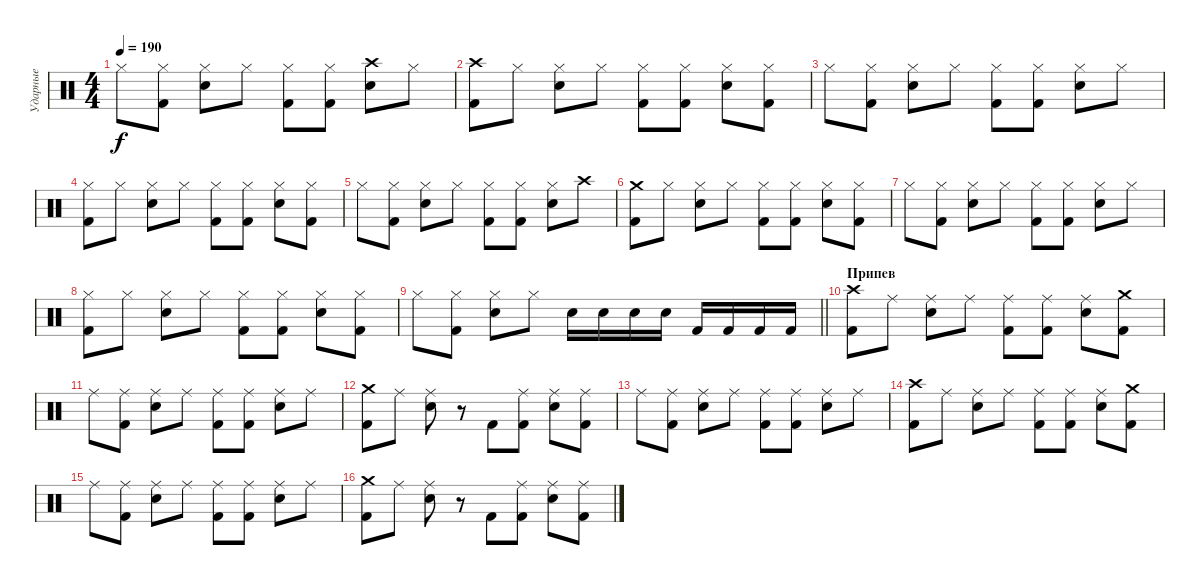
\track ("Ударные" "Ударные") {instrument percussion}
\staff {score}
\articulation defaults
\ts (4 4)
\tempo 190
\clef neutral
\ks c "Hi-Hat (closed)".8{dy f}
("Hi-Hat (closed)" "Kick (hit) 2").8 ("Hi-Hat (closed)" "Electric Snare (hit)").8 "Hi-Hat (closed)".8 ("Hi-Hat (closed)" "Kick (hit) 2").8 ("Hi-Hat (closed)" "Kick (hit) 2").8 ("Crash high (hit)" "Electric Snare (hit)").8 "Hi-Hat (closed)".8 |
("Crash high (hit)" "Kick (hit) 2").8 "Hi-Hat (closed)".8 ("Hi-Hat (closed)" "Electric Snare (hit)").8 "Hi-Hat (closed)".8 ("Hi-Hat (closed)" "Kick (hit) 2").8 ("Hi-Hat (closed)" "Kick (hit) 2").8 ("Hi-Hat (closed)" "Electric Snare (hit)").8 ("Hi-Hat (closed)" "Kick (hit) 2").8 |
"Hi-Hat (closed)".8 ("Hi-Hat (closed)" "Kick (hit) 2").8 ("Hi-Hat (closed)" "Electric Snare (hit)").8 "Hi-Hat (closed)".8 ("Hi-Hat (closed)" "Kick (hit) 2").8 ("Hi-Hat (closed)" "Kick (hit) 2").8 ("Hi-Hat (closed)" "Electric Snare (hit)").8 "Hi-Hat (closed)".8 |
("Hi-Hat (closed)" "Kick (hit) 2").8 "Hi-Hat (closed)".8 ("Hi-Hat (closed)" "Electric Snare (hit)").8 "Hi-Hat (closed)".8 ("Hi-Hat (closed)" "Kick (hit) 2").8 ("Hi-Hat (closed)" "Kick (hit) 2").8 ("Hi-Hat (closed)" "Electric Snare (hit)").8 ("Hi-Hat (closed)" "Kick (hit) 2").8 |
"Hi-Hat (closed)".8 ("Hi-Hat (closed)" "Kick (hit) 2").8 ("Hi-Hat (closed)" "Electric Snare (hit)").8 "Hi-Hat (closed)".8 ("Hi-Hat (closed)" "Kick (hit) 2").8 ("Hi-Hat (closed)" "Kick (hit) 2").8 ("Hi-Hat (closed)" "Electric Snare (hit)").8 "Crash high (hit)".8 |
("Crash medium (hit)" "Kick (hit) 2").8 "Hi-Hat (closed)".8 ("Hi-Hat (closed)" "Electric Snare (hit)").8 "Hi-Hat (closed)".8 ("Hi-Hat (closed)" "Kick (hit) 2").8 ("Hi-Hat (closed)" "Kick (hit) 2").8 ("Hi-Hat (closed)" "Electric Snare (hit)").8 ("Hi-Hat (closed)" "Kick (hit) 2").8 |
"Hi-Hat (closed)".8 ("Hi-Hat (closed)" "Kick (hit) 2").8 ("Hi-Hat (closed)" "Electric Snare (hit)").8 "Hi-Hat (closed)".8 ("Hi-Hat (closed)" "Kick (hit) 2").8 ("Hi-Hat (closed)" "Kick (hit) 2").8 ("Hi-Hat (closed)" "Electric Snare (hit)").8 "Hi-Hat (closed)".8 |
("Hi-Hat (closed)" "Kick (hit) 2").8 "Hi-Hat (closed)".8 ("Hi-Hat (closed)" "Electric Snare (hit)").8 "Hi-Hat (closed)".8 ("Hi-Hat (closed)" "Kick (hit) 2").8 ("Hi-Hat (closed)" "Kick (hit) 2").8 ("Hi-Hat (closed)" "Electric Snare (hit)").8 ("Hi-Hat (closed)" "Kick (hit) 2").8 |
\barLineRight lightlight "Hi-Hat (closed)".8
("Hi-Hat (closed)" "Kick (hit) 2").8 ("Hi-Hat (closed)" "Electric Snare (hit)").8 "Hi-Hat (closed)".8 "Electric Snare (hit)".16 "Electric Snare (hit)".16 "Electric Snare (hit)".16 "Electric Snare (hit)".16 "Kick (hit) 2".16 "Kick (hit) 2".16 "Kick (hit) 2".16 "Kick (hit) 2".16 |
\section ("" "Припев")
("Crash high (hit)" "Kick (hit) 2").8 "Ride (middle)".8 ("Ride (middle)" "Electric Snare (hit)").8 "Ride (middle)".8 ("Ride (middle)" "Kick (hit) 2").8 ("Ride (middle)" "Kick (hit) 2").8 ("Ride (middle)" "Electric Snare (hit)").8 ("Crash medium (hit)" "Kick (hit) 2").8 |
"Ride (middle)".8 ("Ride (middle)" "Kick (hit) 2").8 ("Ride (middle)" "Electric Snare (hit)").8 "Ride (middle)".8 ("Ride (middle)" "Kick (hit) 2").8 ("Ride (middle)" "Kick (hit) 2").8 ("Ride (middle)" "Electric Snare (hit)").8 "Ride (middle)".8 |
("Crash medium (hit)" "Kick (hit) 2").8 "Ride (middle)".8 ("Ride (middle)" "Electric Snare (hit)").8 r.8 "Kick (hit) 2".8 ("Ride (middle)" "Kick (hit) 2").8 ("Ride (middle)" "Electric Snare (hit)").8 ("Ride (middle)" "Kick (hit) 2").8 |
"Ride (middle)".8 ("Ride (middle)" "Kick (hit) 2").8 ("Ride (middle)" "Electric Snare (hit)").8 "Ride (middle)".8 ("Ride (middle)" "Kick (hit) 2").8 ("Ride (middle)" "Kick (hit) 2").8 ("Ride (middle)" "Electric Snare (hit)").8 "Ride (middle)".8 |
("Crash high (hit)" "Kick (hit) 2").8 "Ride (middle)".8 ("Ride (middle)" "Electric Snare (hit)").8 "Ride (middle)".8 ("Ride (middle)" "Kick (hit) 2").8 ("Ride (middle)" "Kick (hit) 2").8 ("Ride (middle)" "Electric Snare (hit)").8 ("Crash medium (hit)" "Kick (hit) 2").8 |
"Ride (middle)".8 ("Ride (middle)" "Kick (hit) 2").8 ("Ride (middle)" "Electric Snare (hit)").8 "Ride (middle)".8 ("Ride (middle)" "Kick (hit) 2").8 ("Ride (middle)" "Kick (hit) 2").8 ("Ride (middle)" "Electric Snare (hit)").8 "Ride (middle)".8 |
("Crash medium (hit)" "Kick (hit) 2").8 "Ride (middle)".8 ("Ride (middle)" "Electric Snare (hit)").8 r.8 "Kick (hit) 2".8 ("Ride (middle)" "Kick (hit) 2").8 ("Ride (middle)" "Electric Snare (hit)").8 ("Ride (middle)" "Kick (hit) 2").8
